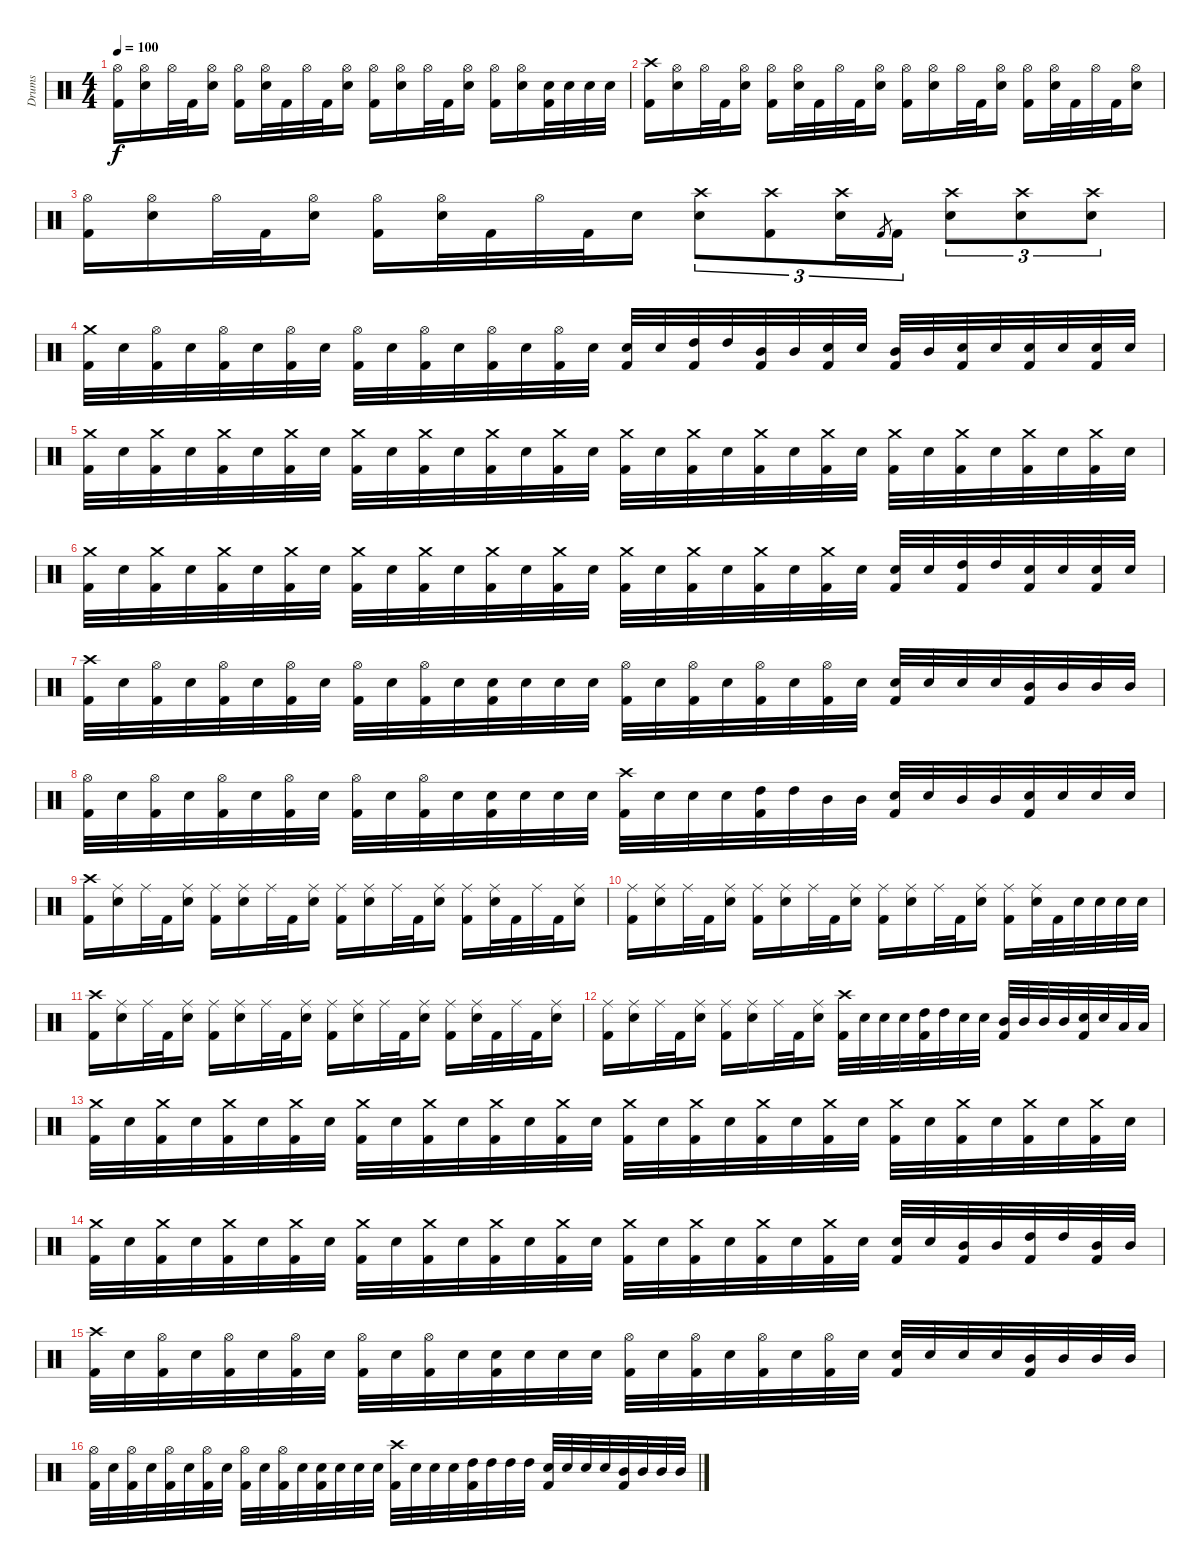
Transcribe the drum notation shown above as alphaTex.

\track ("Drums" "Drums") {instrument percussion}
\staff {score}
\articulation defaults
\ts (4 4)
\tempo 100
\clef neutral
\ks c
("Hi-Hat (open)" "Kick (hit) 2").16{dy f} ("Hi-Hat (open)" "Electric Snare (hit)").16 "Hi-Hat (open)".32 "Kick (hit) 2".32 ("Hi-Hat (open)" "Electric Snare (hit)").16 ("Hi-Hat (open)" "Kick (hit) 2").16 ("Hi-Hat (open)" "Electric Snare (hit)").32 "Kick (hit) 2".32 "Hi-Hat (open)".32 "Kick (hit) 2".32 ("Hi-Hat (open)" "Electric Snare (hit)").16 ("Hi-Hat (open)" "Kick (hit) 2").16 ("Hi-Hat (open)" "Electric Snare (hit)").16 "Hi-Hat (open)".32 "Kick (hit) 2".32 ("Hi-Hat (open)" "Electric Snare (hit)").16 ("Hi-Hat (open)" "Kick (hit) 2").16 ("Hi-Hat (open)" "Electric Snare (hit)").16 ("Electric Snare (hit)" "Kick (hit) 2").32 "Electric Snare (hit)".32 "Electric Snare (hit)".32 "Electric Snare (hit)".32 |
("Crash high (hit)" "Kick (hit) 2").16 ("Hi-Hat (open)" "Electric Snare (hit)").16 "Hi-Hat (open)".32 "Kick (hit) 2".32 ("Hi-Hat (open)" "Electric Snare (hit)").16 ("Hi-Hat (open)" "Kick (hit) 2").16 ("Hi-Hat (open)" "Electric Snare (hit)").32 "Kick (hit) 2".32 "Hi-Hat (open)".32 "Kick (hit) 2".32 ("Hi-Hat (open)" "Electric Snare (hit)").16 ("Hi-Hat (open)" "Kick (hit) 2").16 ("Hi-Hat (open)" "Electric Snare (hit)").16 "Hi-Hat (open)".32 "Kick (hit) 2".32 ("Hi-Hat (open)" "Electric Snare (hit)").16 ("Hi-Hat (open)" "Kick (hit) 2").16 ("Hi-Hat (open)" "Electric Snare (hit)").32 "Kick (hit) 2".32 "Hi-Hat (open)".32 "Kick (hit) 2".32 ("Hi-Hat (open)" "Electric Snare (hit)").16 |
("Hi-Hat (open)" "Kick (hit) 2").16 ("Hi-Hat (open)" "Electric Snare (hit)").16 "Hi-Hat (open)".32 "Kick (hit) 2".32 ("Hi-Hat (open)" "Electric Snare (hit)").16 ("Hi-Hat (open)" "Kick (hit) 2").16 ("Hi-Hat (open)" "Electric Snare (hit)").32 "Kick (hit) 2".32 "Hi-Hat (open)".32 "Kick (hit) 2".32 "Electric Snare (hit)".16 ("Crash high (hit)" "Electric Snare (hit)").8{tu (3 2)} ("Crash high (hit)" "Kick (hit) 2").8{tu (3 2)} ("Crash high (hit)" "Electric Snare (hit)").16{tu (3 2)} "Kick (hit) 2".8{gr} "Kick (hit) 2".16{tu (3 2)} ("Crash high (hit)" "Electric Snare (hit)").8{tu (3 2)} ("Crash high (hit)" "Electric Snare (hit)").8{tu (3 2)} ("Crash high (hit)" "Electric Snare (hit)").8{tu (3 2)} |
("Crash medium (hit)" "Kick (hit) 2").32 "Electric Snare (hit)".32 ("Hi-Hat (open)" "Kick (hit) 2").32 "Electric Snare (hit)".32 ("Hi-Hat (open)" "Kick (hit) 2").32 "Electric Snare (hit)".32 ("Hi-Hat (open)" "Kick (hit) 2").32 "Electric Snare (hit)".32 ("Hi-Hat (open)" "Kick (hit) 2").32 "Electric Snare (hit)".32 ("Hi-Hat (open)" "Kick (hit) 2").32 "Electric Snare (hit)".32 ("Hi-Hat (open)" "Kick (hit) 2").32 "Electric Snare (hit)".32 ("Hi-Hat (open)" "Kick (hit) 2").32 "Electric Snare (hit)".32 ("Electric Snare (hit)" "Kick (hit) 2").32 "Electric Snare (hit)".32 ("High Tom (hit)" "Kick (hit) 2").32 "High Tom (hit)".32 ("Mid Tom (hit)" "Kick (hit) 2").32 "Mid Tom (hit)".32 ("Electric Snare (hit)" "Kick (hit) 2").32 "Electric Snare (hit)".32 ("Mid Tom (hit)" "Kick (hit) 2").32 "Mid Tom (hit)".32 ("Electric Snare (hit)" "Kick (hit) 2").32 "Electric Snare (hit)".32 ("Electric Snare (hit)" "Kick (hit) 2").32 "Electric Snare (hit)".32 ("Electric Snare (hit)" "Kick (hit) 2").32 "Electric Snare (hit)".32 |
("Crash medium (hit)" "Kick (hit) 2").32 "Electric Snare (hit)".32 ("Crash medium (hit)" "Kick (hit) 2").32 "Electric Snare (hit)".32 ("Crash medium (hit)" "Kick (hit) 2").32 "Electric Snare (hit)".32 ("Crash medium (hit)" "Kick (hit) 2").32 "Electric Snare (hit)".32 ("Crash medium (hit)" "Kick (hit) 2").32 "Electric Snare (hit)".32 ("Crash medium (hit)" "Kick (hit) 2").32 "Electric Snare (hit)".32 ("Crash medium (hit)" "Kick (hit) 2").32 "Electric Snare (hit)".32 ("Crash medium (hit)" "Kick (hit) 2").32 "Electric Snare (hit)".32 ("Crash medium (hit)" "Kick (hit) 2").32 "Electric Snare (hit)".32 ("Crash medium (hit)" "Kick (hit) 2").32 "Electric Snare (hit)".32 ("Crash medium (hit)" "Kick (hit) 2").32 "Electric Snare (hit)".32 ("Crash medium (hit)" "Kick (hit) 2").32 "Electric Snare (hit)".32 ("Crash medium (hit)" "Kick (hit) 2").32 "Electric Snare (hit)".32 ("Crash medium (hit)" "Kick (hit) 2").32 "Electric Snare (hit)".32 ("Crash medium (hit)" "Kick (hit) 2").32 "Electric Snare (hit)".32 ("Crash medium (hit)" "Kick (hit) 2").32 "Electric Snare (hit)".32 |
("Crash medium (hit)" "Kick (hit) 2").32 "Electric Snare (hit)".32 ("Crash medium (hit)" "Kick (hit) 2").32 "Electric Snare (hit)".32 ("Crash medium (hit)" "Kick (hit) 2").32 "Electric Snare (hit)".32 ("Crash medium (hit)" "Kick (hit) 2").32 "Electric Snare (hit)".32 ("Crash medium (hit)" "Kick (hit) 2").32 "Electric Snare (hit)".32 ("Crash medium (hit)" "Kick (hit) 2").32 "Electric Snare (hit)".32 ("Crash medium (hit)" "Kick (hit) 2").32 "Electric Snare (hit)".32 ("Crash medium (hit)" "Kick (hit) 2").32 "Electric Snare (hit)".32 ("Crash medium (hit)" "Kick (hit) 2").32 "Electric Snare (hit)".32 ("Crash medium (hit)" "Kick (hit) 2").32 "Electric Snare (hit)".32 ("Crash medium (hit)" "Kick (hit) 2").32 "Electric Snare (hit)".32 ("Crash medium (hit)" "Kick (hit) 2").32 "Electric Snare (hit)".32 ("Electric Snare (hit)" "Kick (hit) 2").32 "Electric Snare (hit)".32 ("High Tom (hit)" "Kick (hit) 2").32 "High Tom (hit)".32 ("Electric Snare (hit)" "Kick (hit) 2").32 "Electric Snare (hit)".32 ("Electric Snare (hit)" "Kick (hit) 2").32 "Electric Snare (hit)".32 |
("Crash high (hit)" "Kick (hit) 2").32 "Electric Snare (hit)".32 ("Hi-Hat (open)" "Kick (hit) 2").32 "Electric Snare (hit)".32 ("Hi-Hat (open)" "Kick (hit) 2").32 "Electric Snare (hit)".32 ("Hi-Hat (open)" "Kick (hit) 2").32 "Electric Snare (hit)".32 ("Hi-Hat (open)" "Kick (hit) 2").32 "Electric Snare (hit)".32 ("Hi-Hat (open)" "Kick (hit) 2").32 "Electric Snare (hit)".32 ("Electric Snare (hit)" "Kick (hit) 2").32 "Electric Snare (hit)".32 "Electric Snare (hit)".32 "Electric Snare (hit)".32 ("Hi-Hat (open)" "Kick (hit) 2").32 "Electric Snare (hit)".32 ("Hi-Hat (open)" "Kick (hit) 2").32 "Electric Snare (hit)".32 ("Hi-Hat (open)" "Kick (hit) 2").32 "Electric Snare (hit)".32 ("Hi-Hat (open)" "Kick (hit) 2").32 "Electric Snare (hit)".32 ("Electric Snare (hit)" "Kick (hit) 2").32 "Electric Snare (hit)".32 "Electric Snare (hit)".32 "Electric Snare (hit)".32 ("Mid Tom (hit)" "Kick (hit) 2").32 "Mid Tom (hit)".32 "Mid Tom (hit)".32 "Mid Tom (hit)".32 |
("Hi-Hat (open)" "Kick (hit) 2").32 "Electric Snare (hit)".32 ("Hi-Hat (open)" "Kick (hit) 2").32 "Electric Snare (hit)".32 ("Hi-Hat (open)" "Kick (hit) 2").32 "Electric Snare (hit)".32 ("Hi-Hat (open)" "Kick (hit) 2").32 "Electric Snare (hit)".32 ("Hi-Hat (open)" "Kick (hit) 2").32 "Electric Snare (hit)".32 ("Hi-Hat (open)" "Kick (hit) 2").32 "Electric Snare (hit)".32 ("Electric Snare (hit)" "Kick (hit) 2").32 "Electric Snare (hit)".32 "Electric Snare (hit)".32 "Electric Snare (hit)".32 ("Crash high (hit)" "Kick (hit) 2").32 "Electric Snare (hit)".32 "Electric Snare (hit)".32 "Electric Snare (hit)".32 ("High Tom (hit)" "Kick (hit) 2").32 "High Tom (hit)".32 "Mid Tom (hit)".32 "Mid Tom (hit)".32 ("Electric Snare (hit)" "Kick (hit) 2").32 "Electric Snare (hit)".32 "Mid Tom (hit)".32 "Mid Tom (hit)".32 ("Electric Snare (hit)" "Kick (hit) 2").32 "Electric Snare (hit)".32 "Electric Snare (hit)".32 "Electric Snare (hit)".32 |
("Crash high (hit)" "Kick (hit) 2").16 ("Ride (middle)" "Electric Snare (hit)").16 "Ride (middle)".32 "Kick (hit) 2".32 ("Ride (middle)" "Electric Snare (hit)").16 ("Ride (middle)" "Kick (hit) 2").16 ("Ride (middle)" "Electric Snare (hit)").16 "Ride (middle)".32 "Kick (hit) 2".32 ("Ride (middle)" "Electric Snare (hit)").16 ("Ride (middle)" "Kick (hit) 2").16 ("Ride (middle)" "Electric Snare (hit)").16 "Ride (middle)".32 "Kick (hit) 2".32 ("Ride (middle)" "Electric Snare (hit)").16 ("Ride (middle)" "Kick (hit) 2").16 ("Ride (middle)" "Electric Snare (hit)").32 "Kick (hit) 2".32 "Ride (middle)".32 "Kick (hit) 2".32 ("Ride (middle)" "Electric Snare (hit)").16 |
("Ride (middle)" "Kick (hit) 2").16 ("Ride (middle)" "Electric Snare (hit)").16 "Ride (middle)".32 "Kick (hit) 2".32 ("Ride (middle)" "Electric Snare (hit)").16 ("Ride (middle)" "Kick (hit) 2").16 ("Ride (middle)" "Electric Snare (hit)").16 "Ride (middle)".32 "Kick (hit) 2".32 ("Ride (middle)" "Electric Snare (hit)").16 ("Ride (middle)" "Kick (hit) 2").16 ("Ride (middle)" "Electric Snare (hit)").16 "Ride (middle)".32 "Kick (hit) 2".32 ("Ride (middle)" "Electric Snare (hit)").16 ("Ride (middle)" "Kick (hit) 2").16 ("Ride (middle)" "Electric Snare (hit)").32 "Kick (hit) 2".32 "Electric Snare (hit)".32 "Electric Snare (hit)".32 "Electric Snare (hit)".32 "Electric Snare (hit)".32 |
("Crash high (hit)" "Kick (hit) 2").16 ("Ride (middle)" "Electric Snare (hit)").16 "Ride (middle)".32 "Kick (hit) 2".32 ("Ride (middle)" "Electric Snare (hit)").16 ("Ride (middle)" "Kick (hit) 2").16 ("Ride (middle)" "Electric Snare (hit)").16 "Ride (middle)".32 "Kick (hit) 2".32 ("Ride (middle)" "Electric Snare (hit)").16 ("Ride (middle)" "Kick (hit) 2").16 ("Ride (middle)" "Electric Snare (hit)").16 "Ride (middle)".32 "Kick (hit) 2".32 ("Ride (middle)" "Electric Snare (hit)").16 ("Ride (middle)" "Kick (hit) 2").16 ("Ride (middle)" "Electric Snare (hit)").32 "Kick (hit) 2".32 "Ride (middle)".32 "Kick (hit) 2".32 ("Ride (middle)" "Electric Snare (hit)").16 |
("Ride (middle)" "Kick (hit) 2").16 ("Ride (middle)" "Electric Snare (hit)").16 "Ride (middle)".32 "Kick (hit) 2".32 ("Ride (middle)" "Electric Snare (hit)").16 ("Ride (middle)" "Kick (hit) 2").16 ("Ride (middle)" "Electric Snare (hit)").16 "Ride (middle)".32 "Kick (hit) 2".32 ("Ride (middle)" "Electric Snare (hit)").16 ("Crash high (hit)" "Kick (hit) 2").32 "Electric Snare (hit)".32 "Electric Snare (hit)".32 "Electric Snare (hit)".32 ("High Tom (hit)" "Kick (hit) 2").32 "High Tom (hit)".32 "Electric Snare (hit)".32 "Electric Snare (hit)".32 ("Mid Tom (hit)" "Kick (hit) 2").32 "Mid Tom (hit)".32 "Mid Tom (hit)".32 "Mid Tom (hit)".32 ("Electric Snare (hit)" "Kick (hit) 2").32 "Electric Snare (hit)".32 "Low Tom (hit)".32 "Low Tom (hit)".32 |
("Crash medium (hit)" "Kick (hit) 2").32 "Electric Snare (hit)".32 ("Crash medium (hit)" "Kick (hit) 2").32 "Electric Snare (hit)".32 ("Crash medium (hit)" "Kick (hit) 2").32 "Electric Snare (hit)".32 ("Crash medium (hit)" "Kick (hit) 2").32 "Electric Snare (hit)".32 ("Crash medium (hit)" "Kick (hit) 2").32 "Electric Snare (hit)".32 ("Crash medium (hit)" "Kick (hit) 2").32 "Electric Snare (hit)".32 ("Crash medium (hit)" "Kick (hit) 2").32 "Electric Snare (hit)".32 ("Crash medium (hit)" "Kick (hit) 2").32 "Electric Snare (hit)".32 ("Crash medium (hit)" "Kick (hit) 2").32 "Electric Snare (hit)".32 ("Crash medium (hit)" "Kick (hit) 2").32 "Electric Snare (hit)".32 ("Crash medium (hit)" "Kick (hit) 2").32 "Electric Snare (hit)".32 ("Crash medium (hit)" "Kick (hit) 2").32 "Electric Snare (hit)".32 ("Crash medium (hit)" "Kick (hit) 2").32 "Electric Snare (hit)".32 ("Crash medium (hit)" "Kick (hit) 2").32 "Electric Snare (hit)".32 ("Crash medium (hit)" "Kick (hit) 2").32 "Electric Snare (hit)".32 ("Crash medium (hit)" "Kick (hit) 2").32 "Electric Snare (hit)".32 |
("Crash medium (hit)" "Kick (hit) 2").32 "Electric Snare (hit)".32 ("Crash medium (hit)" "Kick (hit) 2").32 "Electric Snare (hit)".32 ("Crash medium (hit)" "Kick (hit) 2").32 "Electric Snare (hit)".32 ("Crash medium (hit)" "Kick (hit) 2").32 "Electric Snare (hit)".32 ("Crash medium (hit)" "Kick (hit) 2").32 "Electric Snare (hit)".32 ("Crash medium (hit)" "Kick (hit) 2").32 "Electric Snare (hit)".32 ("Crash medium (hit)" "Kick (hit) 2").32 "Electric Snare (hit)".32 ("Crash medium (hit)" "Kick (hit) 2").32 "Electric Snare (hit)".32 ("Crash medium (hit)" "Kick (hit) 2").32 "Electric Snare (hit)".32 ("Crash medium (hit)" "Kick (hit) 2").32 "Electric Snare (hit)".32 ("Crash medium (hit)" "Kick (hit) 2").32 "Electric Snare (hit)".32 ("Crash medium (hit)" "Kick (hit) 2").32 "Electric Snare (hit)".32 ("Electric Snare (hit)" "Kick (hit) 2").32 "Electric Snare (hit)".32 ("Mid Tom (hit)" "Kick (hit) 2").32 "Mid Tom (hit)".32 ("High Tom (hit)" "Kick (hit) 2").32 "High Tom (hit)".32 ("Mid Tom (hit)" "Kick (hit) 2").32 "Mid Tom (hit)".32 |
("Crash high (hit)" "Kick (hit) 2").32 "Electric Snare (hit)".32 ("Hi-Hat (open)" "Kick (hit) 2").32 "Electric Snare (hit)".32 ("Hi-Hat (open)" "Kick (hit) 2").32 "Electric Snare (hit)".32 ("Hi-Hat (open)" "Kick (hit) 2").32 "Electric Snare (hit)".32 ("Hi-Hat (open)" "Kick (hit) 2").32 "Electric Snare (hit)".32 ("Hi-Hat (open)" "Kick (hit) 2").32 "Electric Snare (hit)".32 ("Electric Snare (hit)" "Kick (hit) 2").32 "Electric Snare (hit)".32 "Electric Snare (hit)".32 "Electric Snare (hit)".32 ("Hi-Hat (open)" "Kick (hit) 2").32 "Electric Snare (hit)".32 ("Hi-Hat (open)" "Kick (hit) 2").32 "Electric Snare (hit)".32 ("Hi-Hat (open)" "Kick (hit) 2").32 "Electric Snare (hit)".32 ("Hi-Hat (open)" "Kick (hit) 2").32 "Electric Snare (hit)".32 ("Electric Snare (hit)" "Kick (hit) 2").32 "Electric Snare (hit)".32 "Electric Snare (hit)".32 "Electric Snare (hit)".32 ("Mid Tom (hit)" "Kick (hit) 2").32 "Mid Tom (hit)".32 "Mid Tom (hit)".32 "Mid Tom (hit)".32 |
("Hi-Hat (open)" "Kick (hit) 2").32 "Electric Snare (hit)".32 ("Hi-Hat (open)" "Kick (hit) 2").32 "Electric Snare (hit)".32 ("Hi-Hat (open)" "Kick (hit) 2").32 "Electric Snare (hit)".32 ("Hi-Hat (open)" "Kick (hit) 2").32 "Electric Snare (hit)".32 ("Hi-Hat (open)" "Kick (hit) 2").32 "Electric Snare (hit)".32 ("Hi-Hat (open)" "Kick (hit) 2").32 "Electric Snare (hit)".32 ("Electric Snare (hit)" "Kick (hit) 2").32 "Electric Snare (hit)".32 "Electric Snare (hit)".32 "Electric Snare (hit)".32 ("Crash high (hit)" "Kick (hit) 2").32 "Electric Snare (hit)".32 "Electric Snare (hit)".32 "Electric Snare (hit)".32 ("High Tom (hit)" "Kick (hit) 2").32 "High Tom (hit)".32 "High Tom (hit)".32 "High Tom (hit)".32 ("Electric Snare (hit)" "Kick (hit) 2").32 "Electric Snare (hit)".32 "Electric Snare (hit)".32 "Electric Snare (hit)".32 ("Mid Tom (hit)" "Kick (hit) 2").32 "Mid Tom (hit)".32 "Mid Tom (hit)".32 "Mid Tom (hit)".32
